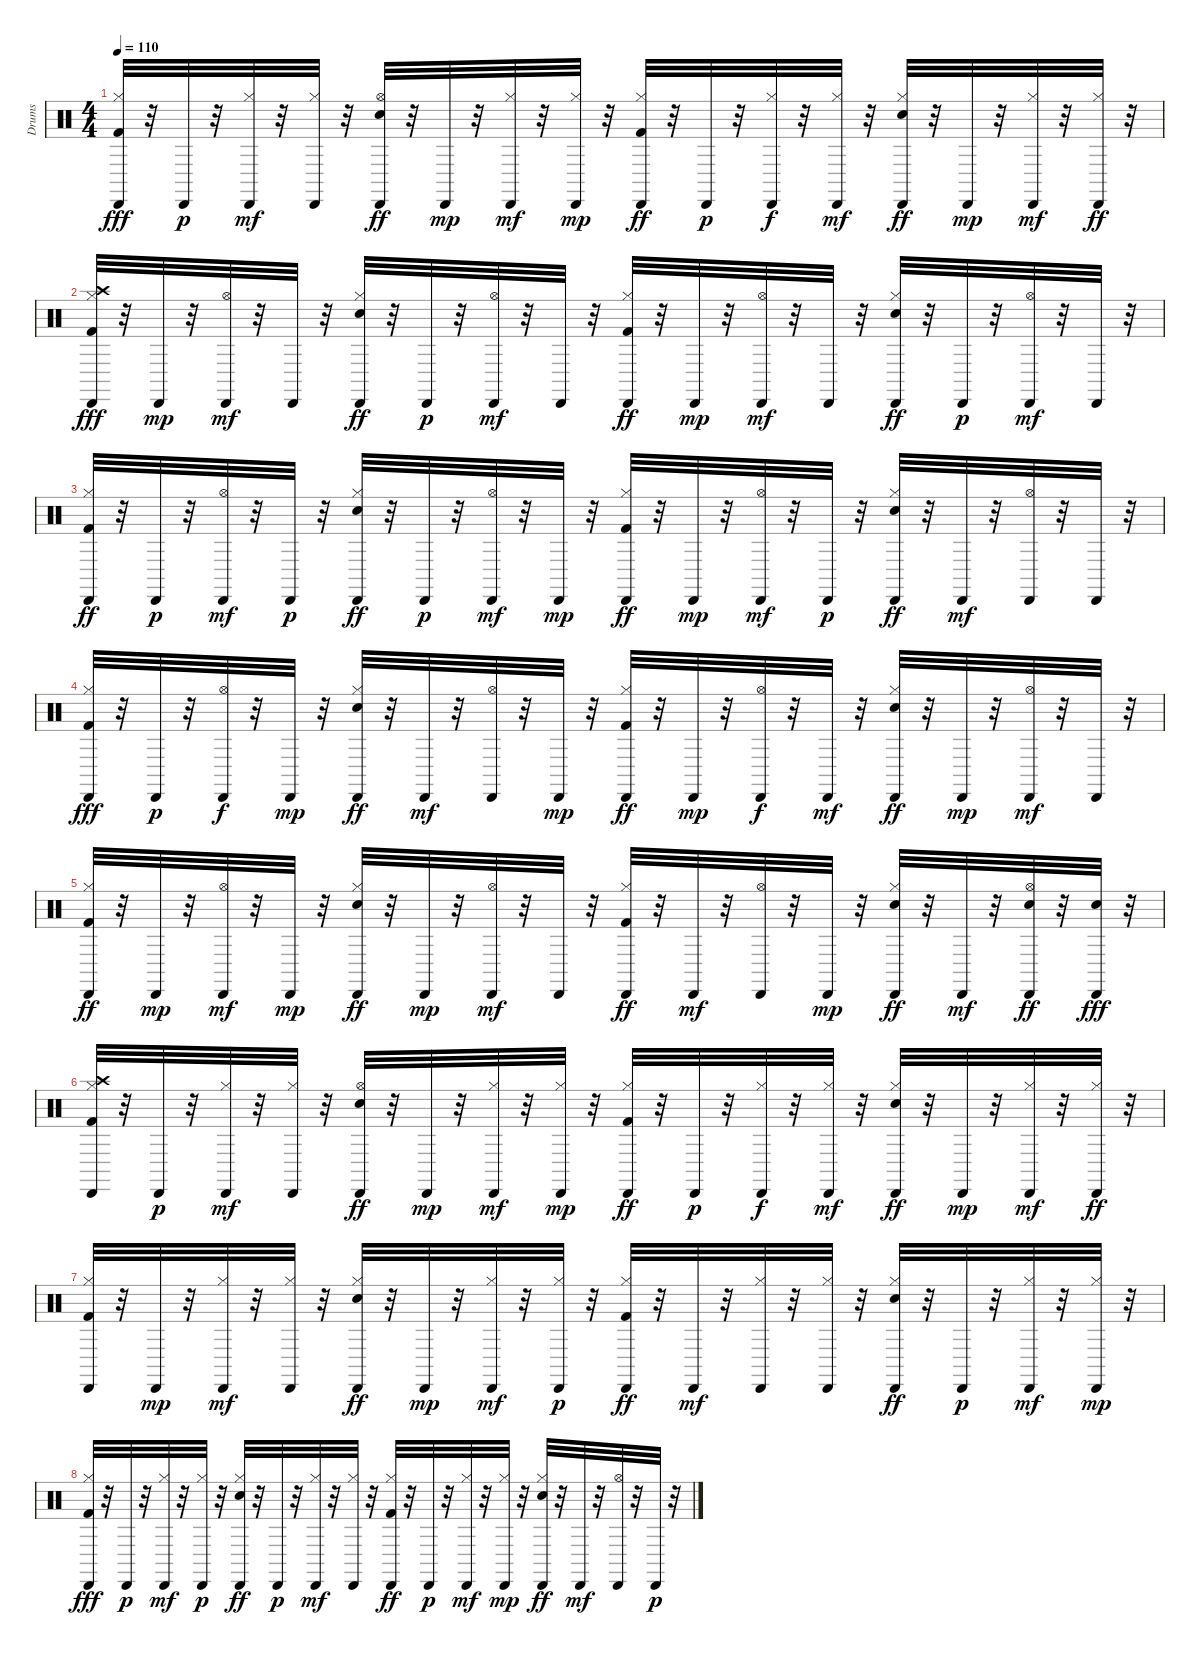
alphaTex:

\track ("Drums" "Drums") {instrument percussion}
\staff {score}
\articulation defaults
\ts (4 4)
\tempo 110
\clef neutral
\ks c
("Cabasa (hit)" "Hi-Hat (closed)" "Kick (hit) 2").32{dy fff} r.32 "Cabasa (hit)".32{dy p} r.32 ("Cabasa (hit)" "Hi-Hat (closed)").32{dy mf} r.32 ("Cabasa (hit)" "Hi-Hat (closed)").32 r.32 ("Hi-Hat (open)" "Cabasa (hit)" "Snare (hit) 2").32{dy ff} r.32 "Cabasa (hit)".32{dy mp} r.32 ("Cabasa (hit)" "Hi-Hat (closed)").32{dy mf} r.32 ("Cabasa (hit)" "Hi-Hat (closed)").32{dy mp} r.32 ("Cabasa (hit)" "Hi-Hat (closed)" "Kick (hit) 2").32{dy ff} r.32 "Cabasa (hit)".32{dy p} r.32 ("Cabasa (hit)" "Hi-Hat (closed)").32{dy f} r.32 ("Cabasa (hit)" "Hi-Hat (closed)").32{dy mf} r.32 ("Cabasa (hit)" "Hi-Hat (closed)" "Snare (hit) 2").32{dy ff} r.32 "Cabasa (hit)".32{dy mp} r.32 ("Cabasa (hit)" "Hi-Hat (closed)").32{dy mf} r.32 ("Cabasa (hit)" "Hi-Hat (closed)").32{dy ff} r.32 |
("Cabasa (hit)" "Crash high (hit)" "Hi-Hat (closed)" "Kick (hit) 2").32{dy fff} r.32 "Cabasa (hit)".32{dy mp} r.32 ("Hi-Hat (open)" "Cabasa (hit)").32{dy mf} r.32 "Cabasa (hit)".32 r.32 ("Cabasa (hit)" "Hi-Hat (closed)" "Snare (hit) 2").32{dy ff} r.32 "Cabasa (hit)".32{dy p} r.32 ("Hi-Hat (open)" "Cabasa (hit)").32{dy mf} r.32 "Cabasa (hit)".32 r.32 ("Cabasa (hit)" "Hi-Hat (closed)" "Kick (hit) 2").32{dy ff} r.32 "Cabasa (hit)".32{dy mp} r.32 ("Hi-Hat (open)" "Cabasa (hit)").32{dy mf} r.32 "Cabasa (hit)".32 r.32 ("Cabasa (hit)" "Hi-Hat (closed)" "Snare (hit) 2").32{dy ff} r.32 "Cabasa (hit)".32{dy p} r.32 ("Hi-Hat (open)" "Cabasa (hit)").32{dy mf} r.32 "Cabasa (hit)".32 r.32 |
("Cabasa (hit)" "Hi-Hat (closed)" "Kick (hit) 2").32{dy ff} r.32 "Cabasa (hit)".32{dy p} r.32 ("Hi-Hat (open)" "Cabasa (hit)").32{dy mf} r.32 "Cabasa (hit)".32{dy p} r.32 ("Cabasa (hit)" "Hi-Hat (closed)" "Snare (hit) 2").32{dy ff} r.32 "Cabasa (hit)".32{dy p} r.32 ("Hi-Hat (open)" "Cabasa (hit)").32{dy mf} r.32 "Cabasa (hit)".32{dy mp} r.32 ("Cabasa (hit)" "Hi-Hat (closed)" "Kick (hit) 2").32{dy ff} r.32 "Cabasa (hit)".32{dy mp} r.32 ("Hi-Hat (open)" "Cabasa (hit)").32{dy mf} r.32 "Cabasa (hit)".32{dy p} r.32 ("Cabasa (hit)" "Hi-Hat (closed)" "Snare (hit) 2").32{dy ff} r.32 "Cabasa (hit)".32{dy mf} r.32 ("Hi-Hat (open)" "Cabasa (hit)").32 r.32 "Cabasa (hit)".32 r.32 |
("Cabasa (hit)" "Hi-Hat (closed)" "Kick (hit) 2").32{dy fff} r.32 "Cabasa (hit)".32{dy p} r.32 ("Hi-Hat (open)" "Cabasa (hit)").32{dy f} r.32 "Cabasa (hit)".32{dy mp} r.32 ("Cabasa (hit)" "Hi-Hat (closed)" "Snare (hit) 2").32{dy ff} r.32 "Cabasa (hit)".32{dy mf} r.32 ("Hi-Hat (open)" "Cabasa (hit)").32 r.32 "Cabasa (hit)".32{dy mp} r.32 ("Cabasa (hit)" "Hi-Hat (closed)" "Kick (hit) 2").32{dy ff} r.32 "Cabasa (hit)".32{dy mp} r.32 ("Hi-Hat (open)" "Cabasa (hit)").32{dy f} r.32 "Cabasa (hit)".32{dy mf} r.32 ("Cabasa (hit)" "Hi-Hat (closed)" "Snare (hit) 2").32{dy ff} r.32 "Cabasa (hit)".32{dy mp} r.32 ("Hi-Hat (open)" "Cabasa (hit)").32{dy mf} r.32 "Cabasa (hit)".32 r.32 |
("Cabasa (hit)" "Hi-Hat (closed)" "Kick (hit) 2").32{dy ff} r.32 "Cabasa (hit)".32{dy mp} r.32 ("Hi-Hat (open)" "Cabasa (hit)").32{dy mf} r.32 "Cabasa (hit)".32{dy mp} r.32 ("Cabasa (hit)" "Hi-Hat (closed)" "Snare (hit) 2").32{dy ff} r.32 "Cabasa (hit)".32{dy mp} r.32 ("Hi-Hat (open)" "Cabasa (hit)").32{dy mf} r.32 "Cabasa (hit)".32 r.32 ("Cabasa (hit)" "Hi-Hat (closed)" "Kick (hit) 2").32{dy ff} r.32 "Cabasa (hit)".32{dy mf} r.32 ("Hi-Hat (open)" "Cabasa (hit)").32 r.32 "Cabasa (hit)".32{dy mp} r.32 ("Cabasa (hit)" "Hi-Hat (closed)" "Snare (hit) 2").32{dy ff} r.32 "Cabasa (hit)".32{dy mf} r.32 ("Hi-Hat (open)" "Cabasa (hit)" "Snare (hit) 2").32{dy ff} r.32 ("Cabasa (hit)" "Snare (hit) 2").32{dy fff} r.32 |
("Cabasa (hit)" "Crash high (hit)" "Hi-Hat (closed)" "Kick (hit) 2").32 r.32 "Cabasa (hit)".32{dy p} r.32 ("Cabasa (hit)" "Hi-Hat (closed)").32{dy mf} r.32 ("Cabasa (hit)" "Hi-Hat (closed)").32 r.32 ("Hi-Hat (open)" "Cabasa (hit)" "Snare (hit) 2").32{dy ff} r.32 "Cabasa (hit)".32{dy mp} r.32 ("Cabasa (hit)" "Hi-Hat (closed)").32{dy mf} r.32 ("Cabasa (hit)" "Hi-Hat (closed)").32{dy mp} r.32 ("Cabasa (hit)" "Hi-Hat (closed)" "Kick (hit) 2").32{dy ff} r.32 "Cabasa (hit)".32{dy p} r.32 ("Cabasa (hit)" "Hi-Hat (closed)").32{dy f} r.32 ("Cabasa (hit)" "Hi-Hat (closed)").32{dy mf} r.32 ("Cabasa (hit)" "Hi-Hat (closed)" "Snare (hit) 2").32{dy ff} r.32 "Cabasa (hit)".32{dy mp} r.32 ("Cabasa (hit)" "Hi-Hat (closed)").32{dy mf} r.32 ("Cabasa (hit)" "Hi-Hat (closed)").32{dy ff} r.32 |
("Cabasa (hit)" "Hi-Hat (closed)" "Kick (hit) 2").32 r.32 "Cabasa (hit)".32{dy mp} r.32 ("Cabasa (hit)" "Hi-Hat (closed)").32{dy mf} r.32 ("Cabasa (hit)" "Hi-Hat (closed)").32 r.32 ("Cabasa (hit)" "Hi-Hat (closed)" "Snare (hit) 2").32{dy ff} r.32 "Cabasa (hit)".32{dy mp} r.32 ("Cabasa (hit)" "Hi-Hat (closed)").32{dy mf} r.32 ("Cabasa (hit)" "Hi-Hat (closed)").32{dy p} r.32 ("Cabasa (hit)" "Hi-Hat (closed)" "Kick (hit) 2").32{dy ff} r.32 "Cabasa (hit)".32{dy mf} r.32 ("Cabasa (hit)" "Hi-Hat (closed)").32 r.32 ("Cabasa (hit)" "Hi-Hat (closed)").32 r.32 ("Cabasa (hit)" "Hi-Hat (closed)" "Snare (hit) 2").32{dy ff} r.32 "Cabasa (hit)".32{dy p} r.32 ("Cabasa (hit)" "Hi-Hat (closed)").32{dy mf} r.32 ("Cabasa (hit)" "Hi-Hat (closed)").32{dy mp} r.32 |
("Cabasa (hit)" "Hi-Hat (closed)" "Kick (hit) 2").32{dy fff} r.32 "Cabasa (hit)".32{dy p} r.32 ("Cabasa (hit)" "Hi-Hat (closed)").32{dy mf} r.32 ("Cabasa (hit)" "Hi-Hat (closed)").32{dy p} r.32 ("Cabasa (hit)" "Hi-Hat (closed)" "Snare (hit) 2").32{dy ff} r.32 "Cabasa (hit)".32{dy p} r.32 ("Cabasa (hit)" "Hi-Hat (closed)").32{dy mf} r.32 ("Cabasa (hit)" "Hi-Hat (closed)").32 r.32 ("Cabasa (hit)" "Hi-Hat (closed)" "Kick (hit) 2").32{dy ff} r.32 "Cabasa (hit)".32{dy p} r.32 ("Cabasa (hit)" "Hi-Hat (closed)").32{dy mf} r.32 ("Cabasa (hit)" "Hi-Hat (closed)").32{dy mp} r.32 ("Cabasa (hit)" "Hi-Hat (closed)" "Snare (hit) 2").32{dy ff} r.32 "Cabasa (hit)".32{dy mf} r.32 ("Hi-Hat (open)" "Cabasa (hit)").32 r.32 "Cabasa (hit)".32{dy p} r.32
